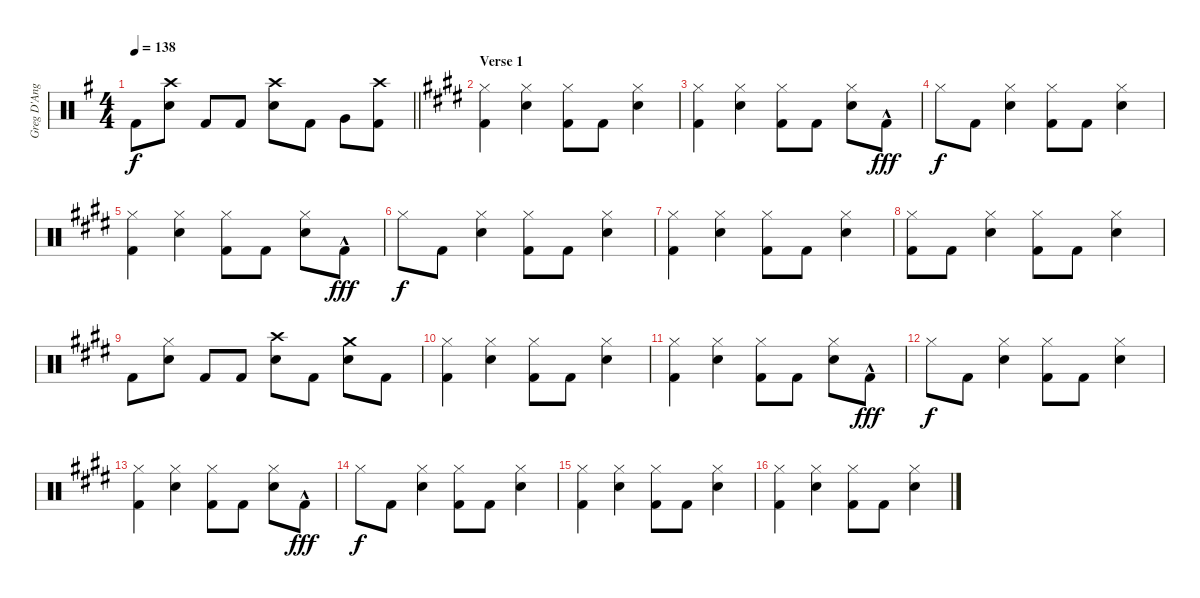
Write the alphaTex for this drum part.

\track ("Greg D'Angelo" "Greg D'Ang") {instrument percussion}
\staff {score}
\articulation defaults
\ts (4 4)
\tempo 138
\clef neutral
\barLineRight lightlight
\ks g "Kick (hit) 2".8{dy f}
("Crash high (hit)" "Snare (hit) 2").8 "Kick (hit) 2".8 "Kick (hit) 2".8 ("Crash high (hit)" "Snare (hit) 2").8 "Kick (hit) 2".8 "Very Low Tom (hit)".8 ("Crash high (hit)" "Kick (hit) 2").8 |
\section ("" "Verse 1")
\ks e
("Hi-Hat (closed)" "Kick (hit) 2").4 ("Hi-Hat (closed)" "Snare (hit) 2").4 ("Hi-Hat (closed)" "Kick (hit) 2").8 "Kick (hit) 2".8 ("Hi-Hat (closed)" "Snare (hit) 2").4 |
\ks c#minor
("Hi-Hat (closed)" "Kick (hit) 2").4 ("Hi-Hat (closed)" "Snare (hit) 2").4 ("Hi-Hat (closed)" "Kick (hit) 2").8 "Kick (hit) 2".8 ("Hi-Hat (closed)" "Snare (hit) 2").8 "Kick (hit) 2"{hac}.8{dy fff} |
"Hi-Hat (closed)".8{dy f} "Kick (hit) 2".8 ("Hi-Hat (closed)" "Snare (hit) 2").4 ("Hi-Hat (closed)" "Kick (hit) 2").8 "Kick (hit) 2".8 ("Hi-Hat (closed)" "Snare (hit) 2").4 |
("Hi-Hat (closed)" "Kick (hit) 2").4 ("Hi-Hat (closed)" "Snare (hit) 2").4 ("Hi-Hat (closed)" "Kick (hit) 2").8 "Kick (hit) 2".8 ("Hi-Hat (closed)" "Snare (hit) 2").8 "Kick (hit) 2"{hac}.8{dy fff} |
"Hi-Hat (closed)".8{dy f} "Kick (hit) 2".8 ("Hi-Hat (closed)" "Snare (hit) 2").4 ("Hi-Hat (closed)" "Kick (hit) 2").8 "Kick (hit) 2".8 ("Hi-Hat (closed)" "Snare (hit) 2").4 |
("Hi-Hat (closed)" "Kick (hit) 2").4 ("Hi-Hat (closed)" "Snare (hit) 2").4 ("Hi-Hat (closed)" "Kick (hit) 2").8 "Kick (hit) 2".8 ("Hi-Hat (closed)" "Snare (hit) 2").4 |
("Hi-Hat (closed)" "Kick (hit) 2").8 "Kick (hit) 2".8 ("Hi-Hat (closed)" "Snare (hit) 2").4 ("Hi-Hat (closed)" "Kick (hit) 2").8 "Kick (hit) 2".8 ("Hi-Hat (closed)" "Snare (hit) 2").4 |
"Kick (hit) 2".8 ("Hi-Hat (closed)" "Snare (hit) 2").8 "Kick (hit) 2".8 "Kick (hit) 2".8 ("Crash high (hit)" "Snare (hit) 2").8 "Kick (hit) 2".8 ("Crash medium (hit)" "Snare (hit) 2").8 "Kick (hit) 2".8 |
\ks e
("Hi-Hat (closed)" "Kick (hit) 2").4 ("Hi-Hat (closed)" "Snare (hit) 2").4 ("Hi-Hat (closed)" "Kick (hit) 2").8 "Kick (hit) 2".8 ("Hi-Hat (closed)" "Snare (hit) 2").4 |
\ks c#minor
("Hi-Hat (closed)" "Kick (hit) 2").4 ("Hi-Hat (closed)" "Snare (hit) 2").4 ("Hi-Hat (closed)" "Kick (hit) 2").8 "Kick (hit) 2".8 ("Hi-Hat (closed)" "Snare (hit) 2").8 "Kick (hit) 2"{hac}.8{dy fff} |
"Hi-Hat (closed)".8{dy f} "Kick (hit) 2".8 ("Hi-Hat (closed)" "Snare (hit) 2").4 ("Hi-Hat (closed)" "Kick (hit) 2").8 "Kick (hit) 2".8 ("Hi-Hat (closed)" "Snare (hit) 2").4 |
("Hi-Hat (closed)" "Kick (hit) 2").4 ("Hi-Hat (closed)" "Snare (hit) 2").4 ("Hi-Hat (closed)" "Kick (hit) 2").8 "Kick (hit) 2".8 ("Hi-Hat (closed)" "Snare (hit) 2").8 "Kick (hit) 2"{hac}.8{dy fff} |
"Hi-Hat (closed)".8{dy f} "Kick (hit) 2".8 ("Hi-Hat (closed)" "Snare (hit) 2").4 ("Hi-Hat (closed)" "Kick (hit) 2").8 "Kick (hit) 2".8 ("Hi-Hat (closed)" "Snare (hit) 2").4 |
("Hi-Hat (closed)" "Kick (hit) 2").4 ("Hi-Hat (closed)" "Snare (hit) 2").4 ("Hi-Hat (closed)" "Kick (hit) 2").8 "Kick (hit) 2".8 ("Hi-Hat (closed)" "Snare (hit) 2").4 |
("Hi-Hat (closed)" "Kick (hit) 2").4 ("Hi-Hat (closed)" "Snare (hit) 2").4 ("Hi-Hat (closed)" "Kick (hit) 2").8 "Kick (hit) 2".8 ("Hi-Hat (closed)" "Snare (hit) 2").4
